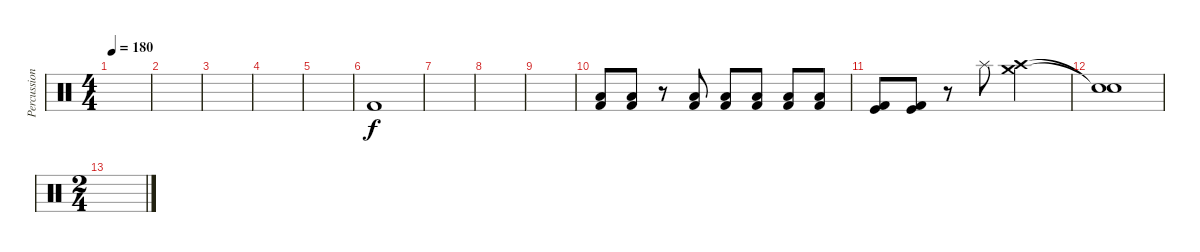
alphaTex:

\track ("Percussion" "Percussion") {instrument percussion}
\staff {score}
\articulation defaults
\ts (4 4)
\tempo 180
\clef neutral
\ks c
|
|
|
|
|
"Kick (hit) 2".1 |
|
|
|
("Low Floor Tom (hit)" "Kick (hit) 2").8 ("Low Floor Tom (hit)" "Kick (hit) 2").8 r.8 ("Low Floor Tom (hit)" "Kick (hit) 2").8 ("Low Floor Tom (hit)" "Kick (hit) 2").8 ("Low Floor Tom (hit)" "Kick (hit) 2").8 ("Low Floor Tom (hit)" "Kick (hit) 2").8 ("Low Floor Tom (hit)" "Kick (hit) 2").8 |
("Kick (hit)" "Kick (hit) 2").8 ("Kick (hit)" "Kick (hit) 2").8 r.8 "Splash (hit)".8 ("Crash medium (hit)" "Crash high (hit)").2 |
("Snare (hit)"{t} "Snare (hit)"{t}).1 |
\ts (2 4)
